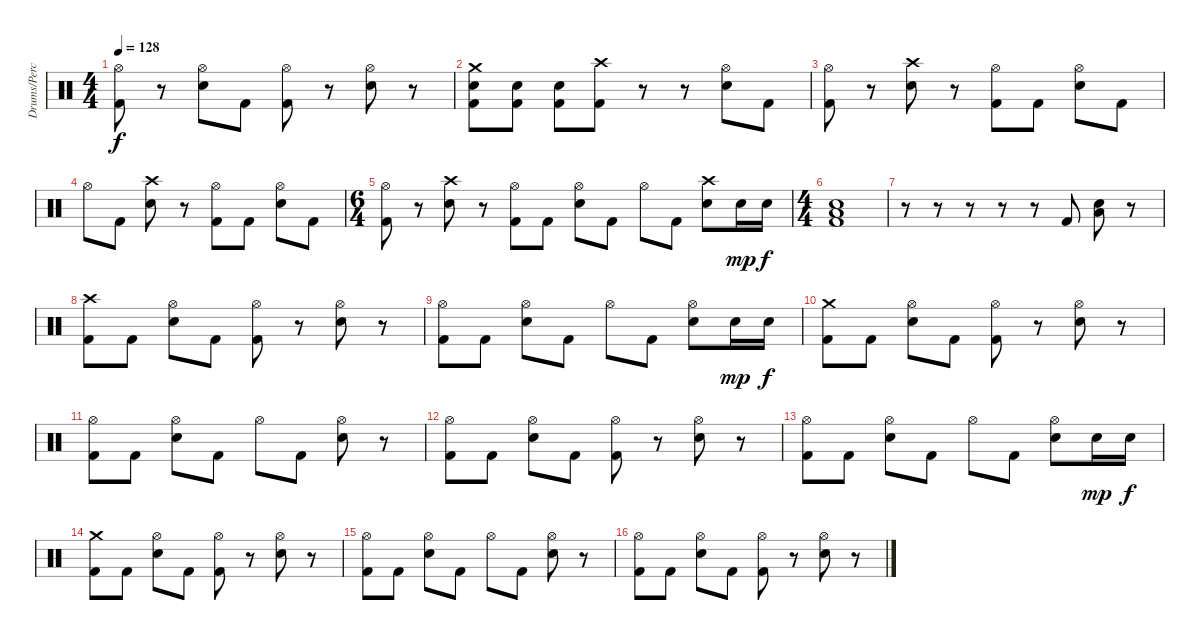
\track ("Drums/Percussion" "Drums/Perc") {instrument percussion}
\staff {score}
\articulation defaults
\ts (4 4)
\tempo 128
\clef neutral
\ks c
("Hi-Hat (open)" "Kick (hit) 2").8{dy f} r.8 ("Hi-Hat (open)" "Electric Snare (hit)").8 "Kick (hit) 2".8 ("Hi-Hat (open)" "Kick (hit) 2").8 r.8 ("Hi-Hat (open)" "Electric Snare (hit)").8 r.8 |
("Crash medium (hit)" "Electric Snare (hit)" "Kick (hit) 2").8 ("Electric Snare (hit)" "Kick (hit) 2").8 ("Electric Snare (hit)" "Kick (hit) 2").8 ("Crash high (hit)" "Kick (hit) 2").8 r.8 r.8 ("Hi-Hat (open)" "Electric Snare (hit)").8 "Kick (hit) 2".8 |
("Hi-Hat (open)" "Kick (hit) 2").8 r.8 ("Crash high (hit)" "Electric Snare (hit)").8 r.8 ("Hi-Hat (open)" "Kick (hit) 2").8 "Kick (hit) 2".8 ("Hi-Hat (open)" "Electric Snare (hit)").8 "Kick (hit) 2".8 |
"Hi-Hat (open)".8 "Kick (hit) 2".8 ("Crash high (hit)" "Electric Snare (hit)").8 r.8 ("Hi-Hat (open)" "Kick (hit) 2").8 "Kick (hit) 2".8 ("Hi-Hat (open)" "Electric Snare (hit)").8 "Kick (hit) 2".8 |
\ts (6 4)
("Hi-Hat (open)" "Kick (hit) 2").8 r.8 ("Crash high (hit)" "Electric Snare (hit)").8 r.8 ("Hi-Hat (open)" "Kick (hit) 2").8 "Kick (hit) 2".8 ("Hi-Hat (open)" "Electric Snare (hit)").8 "Kick (hit) 2".8 "Hi-Hat (open)".8 "Kick (hit) 2".8 ("Crash high (hit)" "Electric Snare (hit)").8 "Electric Snare (hit)".16{dy mp} "Electric Snare (hit)".16{dy f} |
\ts (4 4)
("Electric Snare (hit)" "Low Floor Tom (hit)" "Kick (hit) 2").1 |
r.8 r.8 r.8 r.8 r.8 "Kick (hit) 2".8 ("Electric Snare (hit)" "Low Floor Tom (hit)").8 r.8 |
("Crash high (hit)" "Kick (hit) 2").8 "Kick (hit) 2".8 ("Hi-Hat (open)" "Electric Snare (hit)").8 "Kick (hit) 2".8 ("Hi-Hat (open)" "Kick (hit) 2").8 r.8 ("Hi-Hat (open)" "Electric Snare (hit)").8 r.8 |
("Hi-Hat (open)" "Kick (hit) 2").8 "Kick (hit) 2".8 ("Hi-Hat (open)" "Electric Snare (hit)").8 "Kick (hit) 2".8 "Hi-Hat (open)".8 "Kick (hit) 2".8 ("Hi-Hat (open)" "Electric Snare (hit)").8 "Electric Snare (hit)".16{dy mp} "Electric Snare (hit)".16{dy f} |
("Crash medium (hit)" "Kick (hit) 2").8 "Kick (hit) 2".8 ("Hi-Hat (open)" "Electric Snare (hit)").8 "Kick (hit) 2".8 ("Hi-Hat (open)" "Kick (hit) 2").8 r.8 ("Hi-Hat (open)" "Electric Snare (hit)").8 r.8 |
("Hi-Hat (open)" "Kick (hit) 2").8 "Kick (hit) 2".8 ("Hi-Hat (open)" "Electric Snare (hit)").8 "Kick (hit) 2".8 "Hi-Hat (open)".8 "Kick (hit) 2".8 ("Hi-Hat (open)" "Electric Snare (hit)").8 r.8 |
("Hi-Hat (open)" "Kick (hit) 2").8 "Kick (hit) 2".8 ("Hi-Hat (open)" "Electric Snare (hit)").8 "Kick (hit) 2".8 ("Hi-Hat (open)" "Kick (hit) 2").8 r.8 ("Hi-Hat (open)" "Electric Snare (hit)").8 r.8 |
("Hi-Hat (open)" "Kick (hit) 2").8 "Kick (hit) 2".8 ("Hi-Hat (open)" "Electric Snare (hit)").8 "Kick (hit) 2".8 "Hi-Hat (open)".8 "Kick (hit) 2".8 ("Hi-Hat (open)" "Electric Snare (hit)").8 "Electric Snare (hit)".16{dy mp} "Electric Snare (hit)".16{dy f} |
("Crash medium (hit)" "Kick (hit) 2").8 "Kick (hit) 2".8 ("Hi-Hat (open)" "Electric Snare (hit)").8 "Kick (hit) 2".8 ("Hi-Hat (open)" "Kick (hit) 2").8 r.8 ("Hi-Hat (open)" "Electric Snare (hit)").8 r.8 |
("Hi-Hat (open)" "Kick (hit) 2").8 "Kick (hit) 2".8 ("Hi-Hat (open)" "Electric Snare (hit)").8 "Kick (hit) 2".8 "Hi-Hat (open)".8 "Kick (hit) 2".8 ("Hi-Hat (open)" "Electric Snare (hit)").8 r.8 |
("Hi-Hat (open)" "Kick (hit) 2").8 "Kick (hit) 2".8 ("Hi-Hat (open)" "Electric Snare (hit)").8 "Kick (hit) 2".8 ("Hi-Hat (open)" "Kick (hit) 2").8 r.8 ("Hi-Hat (open)" "Electric Snare (hit)").8 r.8
